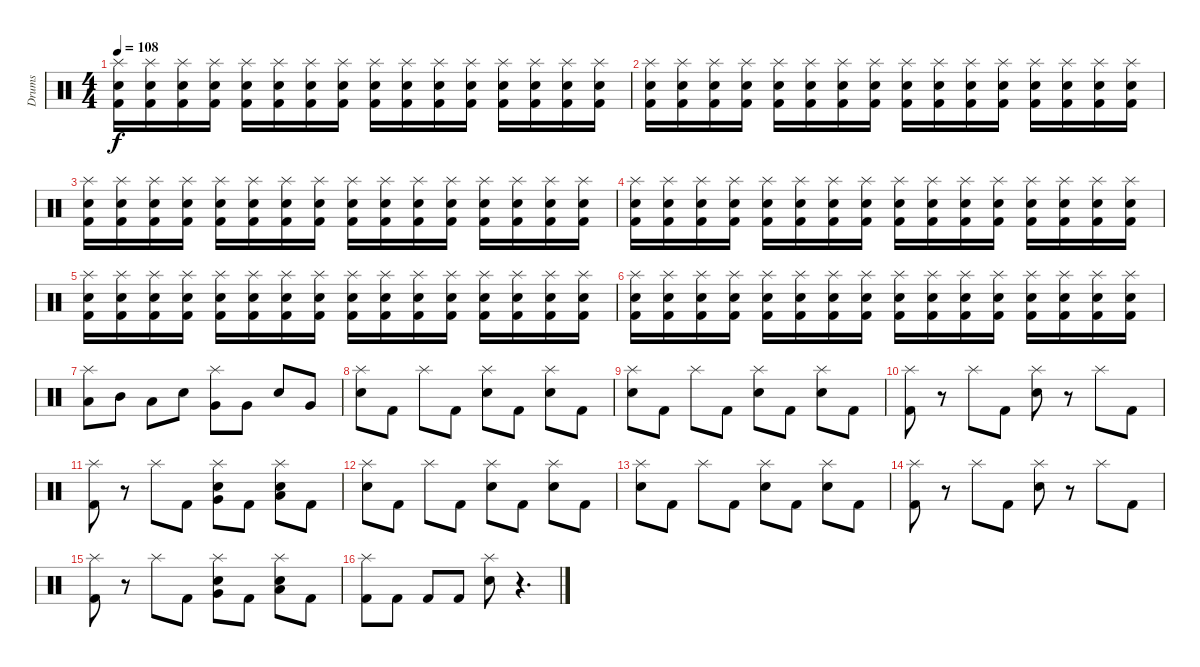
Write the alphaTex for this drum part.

\track ("Drums" "Drums") {instrument percussion}
\staff {score}
\articulation defaults
\ts (4 4)
\tempo 108
\clef neutral
\ks c
("Splash (hit)" "Snare (hit) 2" "Kick (hit) 2").16{dy f} ("Splash (hit)" "Snare (hit) 2" "Kick (hit) 2").16 ("Splash (hit)" "Snare (hit) 2" "Kick (hit) 2").16 ("Splash (hit)" "Snare (hit) 2" "Kick (hit) 2").16 ("Splash (hit)" "Snare (hit) 2" "Kick (hit) 2").16 ("Splash (hit)" "Snare (hit) 2" "Kick (hit) 2").16 ("Splash (hit)" "Snare (hit) 2" "Kick (hit) 2").16 ("Splash (hit)" "Snare (hit) 2" "Kick (hit) 2").16 ("Splash (hit)" "Snare (hit) 2" "Kick (hit) 2").16 ("Splash (hit)" "Snare (hit) 2" "Kick (hit) 2").16 ("Splash (hit)" "Snare (hit) 2" "Kick (hit) 2").16 ("Splash (hit)" "Snare (hit) 2" "Kick (hit) 2").16 ("Splash (hit)" "Snare (hit) 2" "Kick (hit) 2").16 ("Splash (hit)" "Snare (hit) 2" "Kick (hit) 2").16 ("Splash (hit)" "Snare (hit) 2" "Kick (hit) 2").16 ("Splash (hit)" "Snare (hit) 2" "Kick (hit) 2").16 |
("Splash (hit)" "Snare (hit) 2" "Kick (hit) 2").16 ("Splash (hit)" "Snare (hit) 2" "Kick (hit) 2").16 ("Splash (hit)" "Snare (hit) 2" "Kick (hit) 2").16 ("Splash (hit)" "Snare (hit) 2" "Kick (hit) 2").16 ("Splash (hit)" "Snare (hit) 2" "Kick (hit) 2").16 ("Splash (hit)" "Snare (hit) 2" "Kick (hit) 2").16 ("Splash (hit)" "Snare (hit) 2" "Kick (hit) 2").16 ("Splash (hit)" "Snare (hit) 2" "Kick (hit) 2").16 ("Splash (hit)" "Snare (hit) 2" "Kick (hit) 2").16 ("Splash (hit)" "Snare (hit) 2" "Kick (hit) 2").16 ("Splash (hit)" "Snare (hit) 2" "Kick (hit) 2").16 ("Splash (hit)" "Snare (hit) 2" "Kick (hit) 2").16 ("Splash (hit)" "Snare (hit) 2" "Kick (hit) 2").16 ("Splash (hit)" "Snare (hit) 2" "Kick (hit) 2").16 ("Splash (hit)" "Snare (hit) 2" "Kick (hit) 2").16 ("Splash (hit)" "Snare (hit) 2" "Kick (hit) 2").16 |
("Splash (hit)" "Snare (hit) 2" "Kick (hit) 2").16 ("Splash (hit)" "Snare (hit) 2" "Kick (hit) 2").16 ("Splash (hit)" "Snare (hit) 2" "Kick (hit) 2").16 ("Splash (hit)" "Snare (hit) 2" "Kick (hit) 2").16 ("Splash (hit)" "Snare (hit) 2" "Kick (hit) 2").16 ("Splash (hit)" "Snare (hit) 2" "Kick (hit) 2").16 ("Splash (hit)" "Snare (hit) 2" "Kick (hit) 2").16 ("Splash (hit)" "Snare (hit) 2" "Kick (hit) 2").16 ("Splash (hit)" "Snare (hit) 2" "Kick (hit) 2").16 ("Splash (hit)" "Snare (hit) 2" "Kick (hit) 2").16 ("Splash (hit)" "Snare (hit) 2" "Kick (hit) 2").16 ("Splash (hit)" "Snare (hit) 2" "Kick (hit) 2").16 ("Splash (hit)" "Snare (hit) 2" "Kick (hit) 2").16 ("Splash (hit)" "Snare (hit) 2" "Kick (hit) 2").16 ("Splash (hit)" "Snare (hit) 2" "Kick (hit) 2").16 ("Splash (hit)" "Snare (hit) 2" "Kick (hit) 2").16 |
("Splash (hit)" "Snare (hit) 2" "Kick (hit) 2").16 ("Splash (hit)" "Snare (hit) 2" "Kick (hit) 2").16 ("Splash (hit)" "Snare (hit) 2" "Kick (hit) 2").16 ("Splash (hit)" "Snare (hit) 2" "Kick (hit) 2").16 ("Splash (hit)" "Snare (hit) 2" "Kick (hit) 2").16 ("Splash (hit)" "Snare (hit) 2" "Kick (hit) 2").16 ("Splash (hit)" "Snare (hit) 2" "Kick (hit) 2").16 ("Splash (hit)" "Snare (hit) 2" "Kick (hit) 2").16 ("Splash (hit)" "Snare (hit) 2" "Kick (hit) 2").16 ("Splash (hit)" "Snare (hit) 2" "Kick (hit) 2").16 ("Splash (hit)" "Snare (hit) 2" "Kick (hit) 2").16 ("Splash (hit)" "Snare (hit) 2" "Kick (hit) 2").16 ("Splash (hit)" "Snare (hit) 2" "Kick (hit) 2").16 ("Splash (hit)" "Snare (hit) 2" "Kick (hit) 2").16 ("Splash (hit)" "Snare (hit) 2" "Kick (hit) 2").16 ("Splash (hit)" "Snare (hit) 2" "Kick (hit) 2").16 |
("Splash (hit)" "Snare (hit) 2" "Kick (hit) 2").16 ("Splash (hit)" "Snare (hit) 2" "Kick (hit) 2").16 ("Splash (hit)" "Snare (hit) 2" "Kick (hit) 2").16 ("Splash (hit)" "Snare (hit) 2" "Kick (hit) 2").16 ("Splash (hit)" "Snare (hit) 2" "Kick (hit) 2").16 ("Splash (hit)" "Snare (hit) 2" "Kick (hit) 2").16 ("Splash (hit)" "Snare (hit) 2" "Kick (hit) 2").16 ("Splash (hit)" "Snare (hit) 2" "Kick (hit) 2").16 ("Splash (hit)" "Snare (hit) 2" "Kick (hit) 2").16 ("Splash (hit)" "Snare (hit) 2" "Kick (hit) 2").16 ("Splash (hit)" "Snare (hit) 2" "Kick (hit) 2").16 ("Splash (hit)" "Snare (hit) 2" "Kick (hit) 2").16 ("Splash (hit)" "Snare (hit) 2" "Kick (hit) 2").16 ("Splash (hit)" "Snare (hit) 2" "Kick (hit) 2").16 ("Splash (hit)" "Snare (hit) 2" "Kick (hit) 2").16 ("Splash (hit)" "Snare (hit) 2" "Kick (hit) 2").16 |
("Splash (hit)" "Snare (hit) 2" "Kick (hit) 2").16 ("Splash (hit)" "Snare (hit) 2" "Kick (hit) 2").16 ("Splash (hit)" "Snare (hit) 2" "Kick (hit) 2").16 ("Splash (hit)" "Snare (hit) 2" "Kick (hit) 2").16 ("Splash (hit)" "Snare (hit) 2" "Kick (hit) 2").16 ("Splash (hit)" "Snare (hit) 2" "Kick (hit) 2").16 ("Splash (hit)" "Snare (hit) 2" "Kick (hit) 2").16 ("Splash (hit)" "Snare (hit) 2" "Kick (hit) 2").16 ("Splash (hit)" "Snare (hit) 2" "Kick (hit) 2").16 ("Splash (hit)" "Snare (hit) 2" "Kick (hit) 2").16 ("Splash (hit)" "Snare (hit) 2" "Kick (hit) 2").16 ("Splash (hit)" "Snare (hit) 2" "Kick (hit) 2").16 ("Splash (hit)" "Snare (hit) 2" "Kick (hit) 2").16 ("Splash (hit)" "Snare (hit) 2" "Kick (hit) 2").16 ("Splash (hit)" "Snare (hit) 2" "Kick (hit) 2").16 ("Splash (hit)" "Snare (hit) 2" "Kick (hit) 2").16 |
("Splash (hit)" "Low Floor Tom (hit)").8 "Mid Tom (hit)".8 "Low Tom (hit)".8 "Snare (hit) 2".8 ("Splash (hit)" "Very Low Tom (hit)").8 "Very Low Tom (hit)".8 "Snare (hit) 2".8 "Very Low Tom (hit)".8 |
("Splash (hit)" "Snare (hit) 2").8 "Kick (hit) 2".8 "Splash (hit)".8 "Kick (hit) 2".8 ("Splash (hit)" "Snare (hit) 2").8 "Kick (hit) 2".8 ("Splash (hit)" "Snare (hit) 2").8 "Kick (hit) 2".8 |
("Splash (hit)" "Snare (hit) 2").8 "Kick (hit) 2".8 "Splash (hit)".8 "Kick (hit) 2".8 ("Splash (hit)" "Snare (hit) 2").8 "Kick (hit) 2".8 ("Splash (hit)" "Snare (hit) 2").8 "Kick (hit) 2".8 |
("Splash (hit)" "Kick (hit) 2").8 r.8 "Splash (hit)".8 "Kick (hit) 2".8 ("Splash (hit)" "Snare (hit) 2").8 r.8 "Splash (hit)".8 "Kick (hit) 2".8 |
("Splash (hit)" "Kick (hit) 2").8 r.8 "Splash (hit)".8 "Kick (hit) 2".8 ("Splash (hit)" "Snare (hit) 2" "Very Low Tom (hit)").8 "Kick (hit) 2".8 ("Splash (hit)" "Snare (hit) 2" "Low Floor Tom (hit)").8 "Kick (hit) 2".8 |
("Splash (hit)" "Snare (hit) 2").8 "Kick (hit) 2".8 "Splash (hit)".8 "Kick (hit) 2".8 ("Splash (hit)" "Snare (hit) 2").8 "Kick (hit) 2".8 ("Splash (hit)" "Snare (hit) 2").8 "Kick (hit) 2".8 |
("Splash (hit)" "Snare (hit) 2").8 "Kick (hit) 2".8 "Splash (hit)".8 "Kick (hit) 2".8 ("Splash (hit)" "Snare (hit) 2").8 "Kick (hit) 2".8 ("Splash (hit)" "Snare (hit) 2").8 "Kick (hit) 2".8 |
("Splash (hit)" "Kick (hit) 2").8 r.8 "Splash (hit)".8 "Kick (hit) 2".8 ("Splash (hit)" "Snare (hit) 2").8 r.8 "Splash (hit)".8 "Kick (hit) 2".8 |
("Splash (hit)" "Kick (hit) 2").8 r.8 "Splash (hit)".8 "Kick (hit) 2".8 ("Splash (hit)" "Snare (hit) 2" "Very Low Tom (hit)").8 "Kick (hit) 2".8 ("Splash (hit)" "Snare (hit) 2" "Low Floor Tom (hit)").8 "Kick (hit) 2".8 |
("Splash (hit)" "Kick (hit) 2").8 "Kick (hit) 2".8 "Kick (hit) 2".8 "Kick (hit) 2".8 ("Splash (hit)" "Snare (hit) 2").8 r.4{d}
